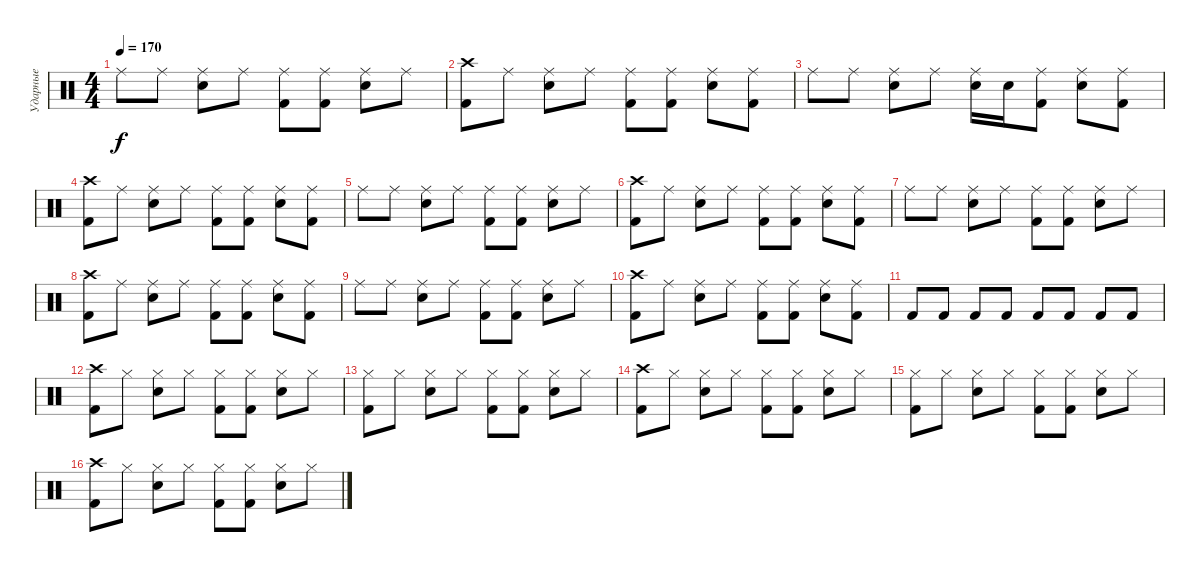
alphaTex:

\track ("Ударные" "Ударные") {instrument percussion}
\staff {score}
\articulation defaults
\ts (4 4)
\tempo 170
\clef neutral
\ks c "Ride (middle)".8{dy f} "Ride (middle)".8
("Ride (middle)" "Electric Snare (hit)").8 "Ride (middle)".8 ("Ride (middle)" "Kick (hit) 2").8 ("Ride (middle)" "Kick (hit) 2").8 ("Ride (middle)" "Electric Snare (hit)").8 "Ride (middle)".8 |
("Crash high (hit)" "Kick (hit) 2").8 "Ride (middle)".8 ("Ride (middle)" "Electric Snare (hit)").8 "Ride (middle)".8 ("Ride (middle)" "Kick (hit) 2").8 ("Ride (middle)" "Kick (hit) 2").8 ("Ride (middle)" "Electric Snare (hit)").8 ("Ride (middle)" "Kick (hit) 2").8 |
"Ride (middle)".8 "Ride (middle)".8 ("Ride (middle)" "Electric Snare (hit)").8 "Ride (middle)".8 ("Ride (middle)" "Electric Snare (hit)").16 "Electric Snare (hit)".16 ("Ride (middle)" "Kick (hit) 2").8 ("Ride (middle)" "Electric Snare (hit)").8 ("Ride (middle)" "Kick (hit) 2").8 |
("Crash high (hit)" "Kick (hit) 2").8 "Ride (middle)".8 ("Ride (middle)" "Electric Snare (hit)").8 "Ride (middle)".8 ("Ride (middle)" "Kick (hit) 2").8 ("Ride (middle)" "Kick (hit) 2").8 ("Ride (middle)" "Electric Snare (hit)").8 ("Ride (middle)" "Kick (hit) 2").8 |
"Ride (middle)".8 "Ride (middle)".8 ("Ride (middle)" "Electric Snare (hit)").8 "Ride (middle)".8 ("Ride (middle)" "Kick (hit) 2").8 ("Ride (middle)" "Kick (hit) 2").8 ("Ride (middle)" "Electric Snare (hit)").8 "Ride (middle)".8 |
("Crash high (hit)" "Kick (hit) 2").8 "Ride (middle)".8 ("Ride (middle)" "Electric Snare (hit)").8 "Ride (middle)".8 ("Ride (middle)" "Kick (hit) 2").8 ("Ride (middle)" "Kick (hit) 2").8 ("Ride (middle)" "Electric Snare (hit)").8 ("Ride (middle)" "Kick (hit) 2").8 |
"Ride (middle)".8 "Ride (middle)".8 ("Ride (middle)" "Electric Snare (hit)").8 "Ride (middle)".8 ("Ride (middle)" "Kick (hit) 2").8 ("Ride (middle)" "Kick (hit) 2").8 ("Ride (middle)" "Electric Snare (hit)").8 "Ride (middle)".8 |
("Crash high (hit)" "Kick (hit) 2").8 "Ride (middle)".8 ("Ride (middle)" "Electric Snare (hit)").8 "Ride (middle)".8 ("Ride (middle)" "Kick (hit) 2").8 ("Ride (middle)" "Kick (hit) 2").8 ("Ride (middle)" "Electric Snare (hit)").8 ("Ride (middle)" "Kick (hit) 2").8 |
"Ride (middle)".8 "Ride (middle)".8 ("Ride (middle)" "Electric Snare (hit)").8 "Ride (middle)".8 ("Ride (middle)" "Kick (hit) 2").8 ("Ride (middle)" "Kick (hit) 2").8 ("Ride (middle)" "Electric Snare (hit)").8 "Ride (middle)".8 |
("Crash high (hit)" "Kick (hit) 2").8 "Ride (middle)".8 ("Ride (middle)" "Electric Snare (hit)").8 "Ride (middle)".8 ("Ride (middle)" "Kick (hit) 2").8 ("Ride (middle)" "Kick (hit) 2").8 ("Ride (middle)" "Electric Snare (hit)").8 ("Ride (middle)" "Kick (hit) 2").8 |
"Kick (hit) 2".8 "Kick (hit) 2".8 "Kick (hit) 2".8 "Kick (hit) 2".8 "Kick (hit) 2".8 "Kick (hit) 2".8 "Kick (hit) 2".8 "Kick (hit) 2".8 |
("Crash high (hit)" "Kick (hit) 2").8 "Hi-Hat (closed)".8 ("Hi-Hat (closed)" "Electric Snare (hit)").8 "Hi-Hat (closed)".8 ("Hi-Hat (closed)" "Kick (hit) 2").8 ("Hi-Hat (closed)" "Kick (hit) 2").8 ("Hi-Hat (closed)" "Electric Snare (hit)").8 "Hi-Hat (closed)".8 |
("Hi-Hat (closed)" "Kick (hit) 2").8 "Hi-Hat (closed)".8 ("Hi-Hat (closed)" "Electric Snare (hit)").8 "Hi-Hat (closed)".8 ("Hi-Hat (closed)" "Kick (hit) 2").8 ("Hi-Hat (closed)" "Kick (hit) 2").8 ("Hi-Hat (closed)" "Electric Snare (hit)").8 "Hi-Hat (closed)".8 |
("Crash high (hit)" "Kick (hit) 2").8 "Hi-Hat (closed)".8 ("Hi-Hat (closed)" "Electric Snare (hit)").8 "Hi-Hat (closed)".8 ("Hi-Hat (closed)" "Kick (hit) 2").8 ("Hi-Hat (closed)" "Kick (hit) 2").8 ("Hi-Hat (closed)" "Electric Snare (hit)").8 "Hi-Hat (closed)".8 |
("Hi-Hat (closed)" "Kick (hit) 2").8 "Hi-Hat (closed)".8 ("Hi-Hat (closed)" "Electric Snare (hit)").8 "Hi-Hat (closed)".8 ("Hi-Hat (closed)" "Kick (hit) 2").8 ("Hi-Hat (closed)" "Kick (hit) 2").8 ("Hi-Hat (closed)" "Electric Snare (hit)").8 "Hi-Hat (closed)".8 |
("Crash high (hit)" "Kick (hit) 2").8 "Hi-Hat (closed)".8 ("Hi-Hat (closed)" "Electric Snare (hit)").8 "Hi-Hat (closed)".8 ("Hi-Hat (closed)" "Kick (hit) 2").8 ("Hi-Hat (closed)" "Kick (hit) 2").8 ("Hi-Hat (closed)" "Electric Snare (hit)").8 "Hi-Hat (closed)".8
